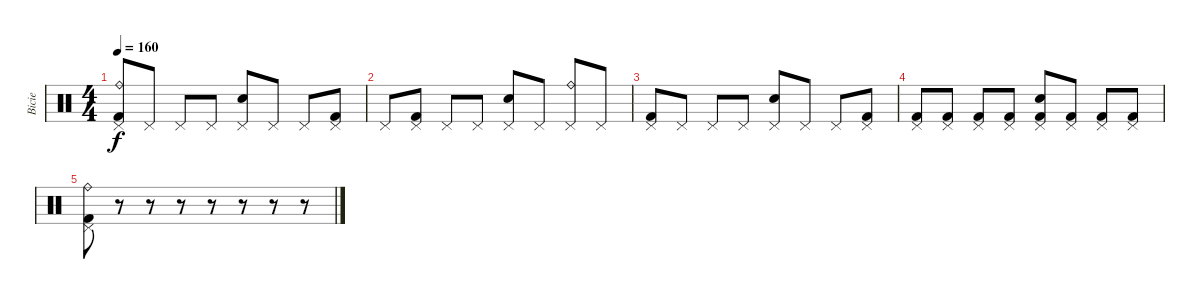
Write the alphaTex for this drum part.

\track ("Bicie" "Bicie") {instrument percussion}
\staff {score}
\articulation defaults
\ts (4 4)
\tempo 160
\clef neutral
\ks c
("Ride (bell)" "Pedal Hi-Hat (hit)" "Kick (hit) 2").8{dy f} "Pedal Hi-Hat (hit)".8 "Pedal Hi-Hat (hit)".8 "Pedal Hi-Hat (hit)".8 ("Pedal Hi-Hat (hit)" "Hand Clap (hit)").8 "Pedal Hi-Hat (hit)".8 "Pedal Hi-Hat (hit)".8 ("Pedal Hi-Hat (hit)" "Kick (hit) 2").8 |
"Pedal Hi-Hat (hit)".8 ("Pedal Hi-Hat (hit)" "Kick (hit) 2").8 "Pedal Hi-Hat (hit)".8 "Pedal Hi-Hat (hit)".8 ("Pedal Hi-Hat (hit)" "Hand Clap (hit)").8 "Pedal Hi-Hat (hit)".8 ("Ride (bell)" "Pedal Hi-Hat (hit)").8 "Pedal Hi-Hat (hit)".8 |
("Pedal Hi-Hat (hit)" "Kick (hit) 2").8 "Pedal Hi-Hat (hit)".8 "Pedal Hi-Hat (hit)".8 "Pedal Hi-Hat (hit)".8 ("Pedal Hi-Hat (hit)" "Hand Clap (hit)").8 "Pedal Hi-Hat (hit)".8 "Pedal Hi-Hat (hit)".8 ("Pedal Hi-Hat (hit)" "Kick (hit) 2").8 |
("Pedal Hi-Hat (hit)" "Kick (hit) 2").8 ("Pedal Hi-Hat (hit)" "Kick (hit) 2").8 ("Pedal Hi-Hat (hit)" "Kick (hit) 2").8 ("Pedal Hi-Hat (hit)" "Kick (hit) 2").8 ("Pedal Hi-Hat (hit)" "Hand Clap (hit)" "Kick (hit) 2").8 ("Pedal Hi-Hat (hit)" "Kick (hit) 2").8 ("Pedal Hi-Hat (hit)" "Kick (hit) 2").8 ("Pedal Hi-Hat (hit)" "Kick (hit) 2").8 |
("Ride (bell)" "Pedal Hi-Hat (hit)" "Kick (hit) 2").8 r.8 r.8 r.8 r.8 r.8 r.8 r.8
